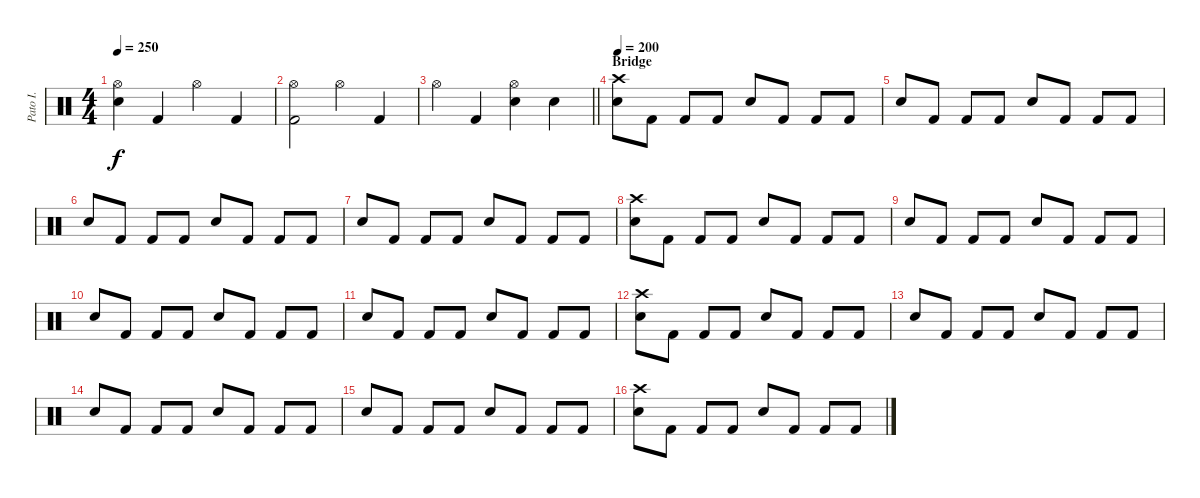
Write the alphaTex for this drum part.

\track ("Pato I." "Pato I.") {instrument percussion}
\staff {score}
\articulation defaults
\ts (4 4)
\tempo 250
\clef neutral
\ks c
("Hi-Hat (open)" "Snare (hit) 2").4{dy f} "Kick (hit) 2".4 "Hi-Hat (open)".4 "Kick (hit) 2".4 |
("Hi-Hat (open)" "Kick (hit) 2").2 "Hi-Hat (open)".4 "Kick (hit) 2".4 |
\barLineRight lightlight "Hi-Hat (open)".4 "Kick (hit) 2".4
("Hi-Hat (open)" "Snare (hit) 2").4 "Snare (hit) 2".4 |
\section ("" "Bridge")
\tempo 200
("Crash high (hit)" "Snare (hit) 2").8 "Kick (hit) 2".8 "Kick (hit) 2".8 "Kick (hit) 2".8 "Snare (hit) 2".8 "Kick (hit) 2".8 "Kick (hit) 2".8 "Kick (hit) 2".8 |
"Snare (hit) 2".8 "Kick (hit) 2".8 "Kick (hit) 2".8 "Kick (hit) 2".8 "Snare (hit) 2".8 "Kick (hit) 2".8 "Kick (hit) 2".8 "Kick (hit) 2".8 |
"Snare (hit) 2".8 "Kick (hit) 2".8 "Kick (hit) 2".8 "Kick (hit) 2".8 "Snare (hit) 2".8 "Kick (hit) 2".8 "Kick (hit) 2".8 "Kick (hit) 2".8 |
"Snare (hit) 2".8 "Kick (hit) 2".8 "Kick (hit) 2".8 "Kick (hit) 2".8 "Snare (hit) 2".8 "Kick (hit) 2".8 "Kick (hit) 2".8 "Kick (hit) 2".8 |
("Crash high (hit)" "Snare (hit) 2").8 "Kick (hit) 2".8 "Kick (hit) 2".8 "Kick (hit) 2".8 "Snare (hit) 2".8 "Kick (hit) 2".8 "Kick (hit) 2".8 "Kick (hit) 2".8 |
"Snare (hit) 2".8 "Kick (hit) 2".8 "Kick (hit) 2".8 "Kick (hit) 2".8 "Snare (hit) 2".8 "Kick (hit) 2".8 "Kick (hit) 2".8 "Kick (hit) 2".8 |
"Snare (hit) 2".8 "Kick (hit) 2".8 "Kick (hit) 2".8 "Kick (hit) 2".8 "Snare (hit) 2".8 "Kick (hit) 2".8 "Kick (hit) 2".8 "Kick (hit) 2".8 |
"Snare (hit) 2".8 "Kick (hit) 2".8 "Kick (hit) 2".8 "Kick (hit) 2".8 "Snare (hit) 2".8 "Kick (hit) 2".8 "Kick (hit) 2".8 "Kick (hit) 2".8 |
("Crash high (hit)" "Snare (hit) 2").8 "Kick (hit) 2".8 "Kick (hit) 2".8 "Kick (hit) 2".8 "Snare (hit) 2".8 "Kick (hit) 2".8 "Kick (hit) 2".8 "Kick (hit) 2".8 |
"Snare (hit) 2".8 "Kick (hit) 2".8 "Kick (hit) 2".8 "Kick (hit) 2".8 "Snare (hit) 2".8 "Kick (hit) 2".8 "Kick (hit) 2".8 "Kick (hit) 2".8 |
"Snare (hit) 2".8 "Kick (hit) 2".8 "Kick (hit) 2".8 "Kick (hit) 2".8 "Snare (hit) 2".8 "Kick (hit) 2".8 "Kick (hit) 2".8 "Kick (hit) 2".8 |
"Snare (hit) 2".8 "Kick (hit) 2".8 "Kick (hit) 2".8 "Kick (hit) 2".8 "Snare (hit) 2".8 "Kick (hit) 2".8 "Kick (hit) 2".8 "Kick (hit) 2".8 |
("Crash high (hit)" "Snare (hit) 2").8 "Kick (hit) 2".8 "Kick (hit) 2".8 "Kick (hit) 2".8 "Snare (hit) 2".8 "Kick (hit) 2".8 "Kick (hit) 2".8 "Kick (hit) 2".8
